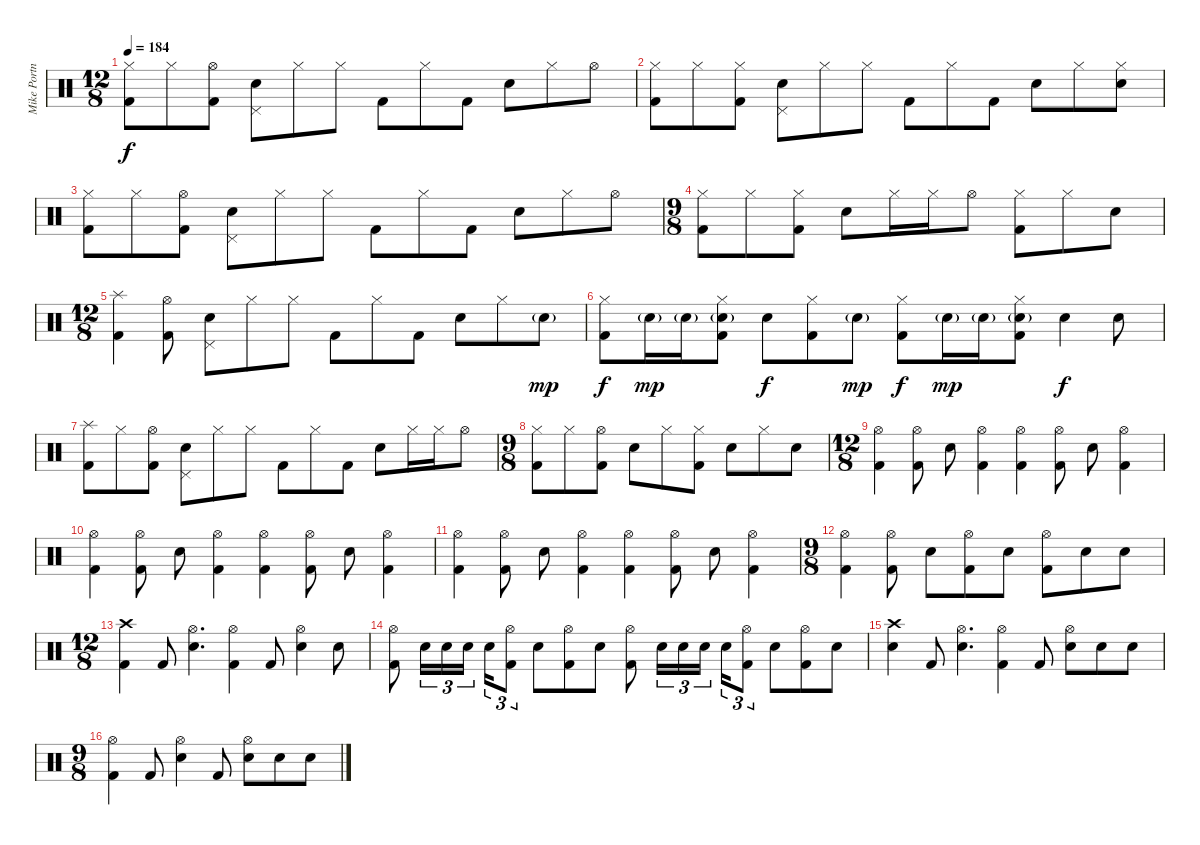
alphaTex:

\track ("Mike Portnoy - Drum" "Mike Portn") {instrument percussion}
\staff {score}
\articulation defaults
\ts (12 8)
\tempo 184
\clef neutral
\ks c
("Hi-Hat (closed)" "Kick (hit) 2").8{dy f} "Hi-Hat (closed)".8 ("Hi-Hat (open)" "Kick (hit) 2").8 ("Electric Snare (hit)" "Pedal Hi-Hat (hit)").8 "Hi-Hat (closed)".8 "Hi-Hat (closed)".8 "Kick (hit) 2".8 "Hi-Hat (closed)".8 "Kick (hit) 2".8 "Electric Snare (hit)".8 "Hi-Hat (closed)".8 "Hi-Hat (open)".8 |
("Hi-Hat (closed)" "Kick (hit) 2").8 "Hi-Hat (closed)".8 ("Hi-Hat (closed)" "Kick (hit) 2").8 ("Electric Snare (hit)" "Pedal Hi-Hat (hit)").8 "Hi-Hat (closed)".8 "Hi-Hat (closed)".8 "Kick (hit) 2".8 "Hi-Hat (closed)".8 "Kick (hit) 2".8 "Electric Snare (hit)".8 "Hi-Hat (closed)".8 ("Hi-Hat (closed)" "Electric Snare (hit)").8 |
("Hi-Hat (closed)" "Kick (hit) 2").8 "Hi-Hat (closed)".8 ("Hi-Hat (open)" "Kick (hit) 2").8 ("Electric Snare (hit)" "Pedal Hi-Hat (hit)").8 "Hi-Hat (closed)".8 "Hi-Hat (closed)".8 "Kick (hit) 2".8 "Hi-Hat (closed)".8 "Kick (hit) 2".8 "Electric Snare (hit)".8 "Hi-Hat (closed)".8 "Hi-Hat (open)".8 |
\ts (9 8)
("Hi-Hat (closed)" "Kick (hit) 2").8 "Hi-Hat (closed)".8 ("Hi-Hat (closed)" "Kick (hit) 2").8 "Electric Snare (hit)".8 "Hi-Hat (closed)".16 "Hi-Hat (closed)".16 "Hi-Hat (open)".8 ("Hi-Hat (closed)" "Kick (hit) 2").8 "Hi-Hat (closed)".8 "Electric Snare (hit)".8 |
\ts (12 8)
("Splash (hit)" "Kick (hit) 2").4 ("Hi-Hat (open)" "Kick (hit) 2").8 ("Electric Snare (hit)" "Pedal Hi-Hat (hit)").8 "Hi-Hat (closed)".8 "Hi-Hat (closed)".8 "Kick (hit) 2".8 "Hi-Hat (closed)".8 "Kick (hit) 2".8 "Electric Snare (hit)".8 "Hi-Hat (closed)".8 "Electric Snare (hit)"{g}.8{dy mp} |
("Hi-Hat (closed)" "Kick (hit) 2").8{dy f} "Electric Snare (hit)"{g}.16{dy mp} "Electric Snare (hit)"{g}.16 ("Hi-Hat (closed)" "Electric Snare (hit)"{g} "Kick (hit) 2").8 "Electric Snare (hit)".8{dy f} ("Hi-Hat (closed)" "Kick (hit) 2").8 "Electric Snare (hit)"{g}.8{dy mp} ("Hi-Hat (closed)" "Kick (hit) 2").8{dy f} "Electric Snare (hit)"{g}.16{dy mp} "Electric Snare (hit)"{g}.16 ("Hi-Hat (closed)" "Electric Snare (hit)"{g} "Kick (hit) 2").8 "Electric Snare (hit)".4{dy f} "Electric Snare (hit)".8 |
("Splash (hit)" "Kick (hit) 2").8 "Hi-Hat (closed)".8 ("Hi-Hat (open)" "Kick (hit) 2").8 ("Electric Snare (hit)" "Pedal Hi-Hat (hit)").8 "Hi-Hat (closed)".8 "Hi-Hat (closed)".8 "Kick (hit) 2".8 "Hi-Hat (closed)".8 "Kick (hit) 2".8 "Electric Snare (hit)".8 "Hi-Hat (closed)".16 "Hi-Hat (closed)".16 "Hi-Hat (open)".8 |
\ts (9 8)
("Hi-Hat (closed)" "Kick (hit) 2").8 "Hi-Hat (closed)".8 ("Hi-Hat (open)" "Kick (hit) 2").8 "Electric Snare (hit)".8 "Hi-Hat (closed)".8 ("Hi-Hat (closed)" "Kick (hit) 2").8 "Electric Snare (hit)".8 "Hi-Hat (closed)".8 "Electric Snare (hit)".8 |
\ts (12 8)
("Hi-Hat (open)" "Kick (hit) 2").4 ("Hi-Hat (open)" "Kick (hit) 2").8 "Electric Snare (hit)".8 ("Hi-Hat (open)" "Kick (hit) 2").4 ("Hi-Hat (open)" "Kick (hit) 2").4 ("Hi-Hat (open)" "Kick (hit) 2").8 "Electric Snare (hit)".8 ("Hi-Hat (open)" "Kick (hit) 2").4 |
("Hi-Hat (open)" "Kick (hit) 2").4 ("Hi-Hat (open)" "Kick (hit) 2").8 "Electric Snare (hit)".8 ("Hi-Hat (open)" "Kick (hit) 2").4 ("Hi-Hat (open)" "Kick (hit) 2").4 ("Hi-Hat (open)" "Kick (hit) 2").8 "Electric Snare (hit)".8 ("Hi-Hat (open)" "Kick (hit) 2").4 |
("Hi-Hat (open)" "Kick (hit) 2").4 ("Hi-Hat (open)" "Kick (hit) 2").8 "Electric Snare (hit)".8 ("Hi-Hat (open)" "Kick (hit) 2").4 ("Hi-Hat (open)" "Kick (hit) 2").4 ("Hi-Hat (open)" "Kick (hit) 2").8 "Electric Snare (hit)".8 ("Hi-Hat (open)" "Kick (hit) 2").4 |
\ts (9 8)
("Hi-Hat (open)" "Kick (hit) 2").4 ("Hi-Hat (open)" "Kick (hit) 2").8 "Electric Snare (hit)".8 ("Hi-Hat (open)" "Kick (hit) 2").8 "Electric Snare (hit)".8 ("Hi-Hat (open)" "Kick (hit) 2").8 "Electric Snare (hit)".8 "Electric Snare (hit)".8 |
\ts (12 8)
("Crash high (hit)" "Kick (hit) 2").4 "Kick (hit) 2".8 ("Hi-Hat (open)" "Electric Snare (hit)").4{d} ("Hi-Hat (open)" "Kick (hit) 2").4 "Kick (hit) 2".8 ("Hi-Hat (open)" "Electric Snare (hit)").4 "Electric Snare (hit)".8 |
("Hi-Hat (open)" "Kick (hit) 2").8 "Electric Snare (hit)".16{tu (3 2)} "Electric Snare (hit)".16{tu (3 2)} "Electric Snare (hit)".16{tu (3 2) beam splitsecondary} "Electric Snare (hit)".16{tu (3 2)} ("Hi-Hat (open)" "Kick (hit) 2").8{tu (3 2)} "Electric Snare (hit)".8 ("Hi-Hat (open)" "Kick (hit) 2").8 "Electric Snare (hit)".8 ("Hi-Hat (open)" "Kick (hit) 2").8 "Electric Snare (hit)".16{tu (3 2)} "Electric Snare (hit)".16{tu (3 2)} "Electric Snare (hit)".16{tu (3 2) beam splitsecondary} "Electric Snare (hit)".16{tu (3 2)} ("Hi-Hat (open)" "Kick (hit) 2").8{tu (3 2)} "Electric Snare (hit)".8 ("Hi-Hat (open)" "Kick (hit) 2").8 "Electric Snare (hit)".8 |
("Crash high (hit)" "Electric Snare (hit)").4 "Kick (hit) 2".8 ("Hi-Hat (open)" "Electric Snare (hit)").4{d} ("Hi-Hat (open)" "Kick (hit) 2").4 "Kick (hit) 2".8 ("Hi-Hat (open)" "Electric Snare (hit)").8 "Electric Snare (hit)".8 "Electric Snare (hit)".8 |
\ts (9 8)
("Hi-Hat (open)" "Kick (hit) 2").4 "Kick (hit) 2".8 ("Hi-Hat (open)" "Electric Snare (hit)").4 "Kick (hit) 2".8 ("Hi-Hat (open)" "Electric Snare (hit)").8 "Electric Snare (hit)".8 "Electric Snare (hit)".8
